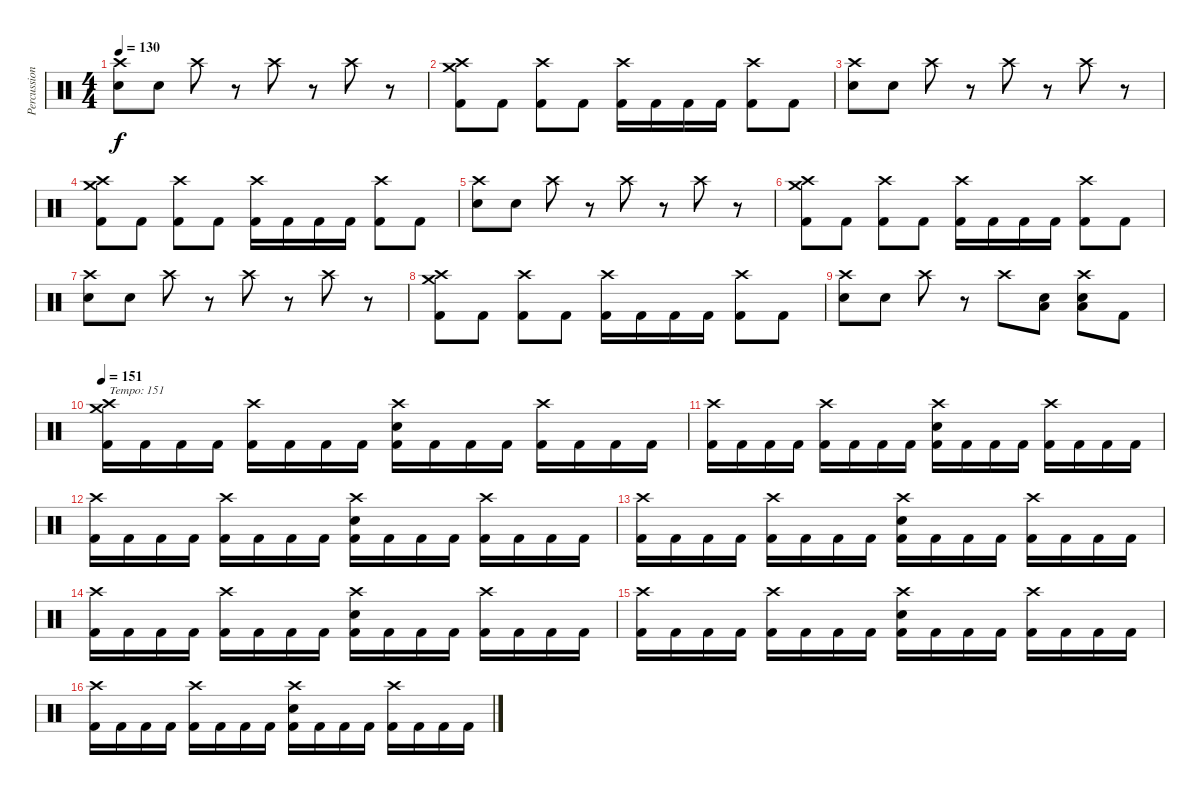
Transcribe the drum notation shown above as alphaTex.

\track ("Percussion" "Percussion") {instrument percussion}
\staff {score}
\articulation defaults
\ts (4 4)
\tempo 130
\clef neutral
\ks c
("Crash high (hit)" "Electric Snare (hit)").8{dy f} "Electric Snare (hit)".8 "Crash high (hit)".8 r.8 "Crash high (hit)".8 r.8 "Crash high (hit)".8 r.8 |
("Crash medium (hit)" "Crash high (hit)" "Kick (hit) 2").8 "Kick (hit) 2".8 ("Crash high (hit)" "Kick (hit) 2").8 "Kick (hit) 2".8 ("Crash high (hit)" "Kick (hit) 2").16 "Kick (hit) 2".16 "Kick (hit) 2".16 "Kick (hit) 2".16 ("Crash high (hit)" "Kick (hit) 2").8 "Kick (hit) 2".8 |
("Crash high (hit)" "Electric Snare (hit)").8 "Electric Snare (hit)".8 "Crash high (hit)".8 r.8 "Crash high (hit)".8 r.8 "Crash high (hit)".8 r.8 |
("Crash medium (hit)" "Crash high (hit)" "Kick (hit) 2").8 "Kick (hit) 2".8 ("Crash high (hit)" "Kick (hit) 2").8 "Kick (hit) 2".8 ("Crash high (hit)" "Kick (hit) 2").16 "Kick (hit) 2".16 "Kick (hit) 2".16 "Kick (hit) 2".16 ("Crash high (hit)" "Kick (hit) 2").8 "Kick (hit) 2".8 |
("Crash high (hit)" "Electric Snare (hit)").8 "Electric Snare (hit)".8 "Crash high (hit)".8 r.8 "Crash high (hit)".8 r.8 "Crash high (hit)".8 r.8 |
("Crash medium (hit)" "Crash high (hit)" "Kick (hit) 2").8 "Kick (hit) 2".8 ("Crash high (hit)" "Kick (hit) 2").8 "Kick (hit) 2".8 ("Crash high (hit)" "Kick (hit) 2").16 "Kick (hit) 2".16 "Kick (hit) 2".16 "Kick (hit) 2".16 ("Crash high (hit)" "Kick (hit) 2").8 "Kick (hit) 2".8 |
("Crash high (hit)" "Electric Snare (hit)").8 "Electric Snare (hit)".8 "Crash high (hit)".8 r.8 "Crash high (hit)".8 r.8 "Crash high (hit)".8 r.8 |
("Crash medium (hit)" "Crash high (hit)" "Kick (hit) 2").8 "Kick (hit) 2".8 ("Crash high (hit)" "Kick (hit) 2").8 "Kick (hit) 2".8 ("Crash high (hit)" "Kick (hit) 2").16 "Kick (hit) 2".16 "Kick (hit) 2".16 "Kick (hit) 2".16 ("Crash high (hit)" "Kick (hit) 2").8 "Kick (hit) 2".8 |
("Crash high (hit)" "Electric Snare (hit)").8 "Electric Snare (hit)".8 "Crash high (hit)".8 r.8 "Crash high (hit)".8 ("Low Floor Tom (hit)" "Electric Snare (hit)").8 ("Crash high (hit)" "Low Floor Tom (hit)" "Electric Snare (hit)").8 "Kick (hit) 2".8 |
\tempo 151
("Crash medium (hit)" "Crash high (hit)" "Kick (hit) 2").16{txt "Tempo: 151"} "Kick (hit) 2".16 "Kick (hit) 2".16 "Kick (hit) 2".16 ("Crash high (hit)" "Kick (hit) 2").16 "Kick (hit) 2".16 "Kick (hit) 2".16 "Kick (hit) 2".16 ("Crash high (hit)" "Electric Snare (hit)" "Kick (hit) 2").16 "Kick (hit) 2".16 "Kick (hit) 2".16 "Kick (hit) 2".16 ("Crash high (hit)" "Kick (hit) 2").16 "Kick (hit) 2".16 "Kick (hit) 2".16 "Kick (hit) 2".16 |
("Crash high (hit)" "Kick (hit) 2").16 "Kick (hit) 2".16 "Kick (hit) 2".16 "Kick (hit) 2".16 ("Crash high (hit)" "Kick (hit) 2").16 "Kick (hit) 2".16 "Kick (hit) 2".16 "Kick (hit) 2".16 ("Crash high (hit)" "Electric Snare (hit)" "Kick (hit) 2").16 "Kick (hit) 2".16 "Kick (hit) 2".16 "Kick (hit) 2".16 ("Crash high (hit)" "Kick (hit) 2").16 "Kick (hit) 2".16 "Kick (hit) 2".16 "Kick (hit) 2".16 |
("Crash high (hit)" "Kick (hit) 2").16 "Kick (hit) 2".16 "Kick (hit) 2".16 "Kick (hit) 2".16 ("Crash high (hit)" "Kick (hit) 2").16 "Kick (hit) 2".16 "Kick (hit) 2".16 "Kick (hit) 2".16 ("Crash high (hit)" "Electric Snare (hit)" "Kick (hit) 2").16 "Kick (hit) 2".16 "Kick (hit) 2".16 "Kick (hit) 2".16 ("Crash high (hit)" "Kick (hit) 2").16 "Kick (hit) 2".16 "Kick (hit) 2".16 "Kick (hit) 2".16 |
("Crash high (hit)" "Kick (hit) 2").16 "Kick (hit) 2".16 "Kick (hit) 2".16 "Kick (hit) 2".16 ("Crash high (hit)" "Kick (hit) 2").16 "Kick (hit) 2".16 "Kick (hit) 2".16 "Kick (hit) 2".16 ("Crash high (hit)" "Electric Snare (hit)" "Kick (hit) 2").16 "Kick (hit) 2".16 "Kick (hit) 2".16 "Kick (hit) 2".16 ("Crash high (hit)" "Kick (hit) 2").16 "Kick (hit) 2".16 "Kick (hit) 2".16 "Kick (hit) 2".16 |
("Crash high (hit)" "Kick (hit) 2").16 "Kick (hit) 2".16 "Kick (hit) 2".16 "Kick (hit) 2".16 ("Crash high (hit)" "Kick (hit) 2").16 "Kick (hit) 2".16 "Kick (hit) 2".16 "Kick (hit) 2".16 ("Crash high (hit)" "Electric Snare (hit)" "Kick (hit) 2").16 "Kick (hit) 2".16 "Kick (hit) 2".16 "Kick (hit) 2".16 ("Crash high (hit)" "Kick (hit) 2").16 "Kick (hit) 2".16 "Kick (hit) 2".16 "Kick (hit) 2".16 |
("Crash high (hit)" "Kick (hit) 2").16 "Kick (hit) 2".16 "Kick (hit) 2".16 "Kick (hit) 2".16 ("Crash high (hit)" "Kick (hit) 2").16 "Kick (hit) 2".16 "Kick (hit) 2".16 "Kick (hit) 2".16 ("Crash high (hit)" "Electric Snare (hit)" "Kick (hit) 2").16 "Kick (hit) 2".16 "Kick (hit) 2".16 "Kick (hit) 2".16 ("Crash high (hit)" "Kick (hit) 2").16 "Kick (hit) 2".16 "Kick (hit) 2".16 "Kick (hit) 2".16 |
("Crash high (hit)" "Kick (hit) 2").16 "Kick (hit) 2".16 "Kick (hit) 2".16 "Kick (hit) 2".16 ("Crash high (hit)" "Kick (hit) 2").16 "Kick (hit) 2".16 "Kick (hit) 2".16 "Kick (hit) 2".16 ("Crash high (hit)" "Electric Snare (hit)" "Kick (hit) 2").16 "Kick (hit) 2".16 "Kick (hit) 2".16 "Kick (hit) 2".16 ("Crash high (hit)" "Kick (hit) 2").16 "Kick (hit) 2".16 "Kick (hit) 2".16 "Kick (hit) 2".16
